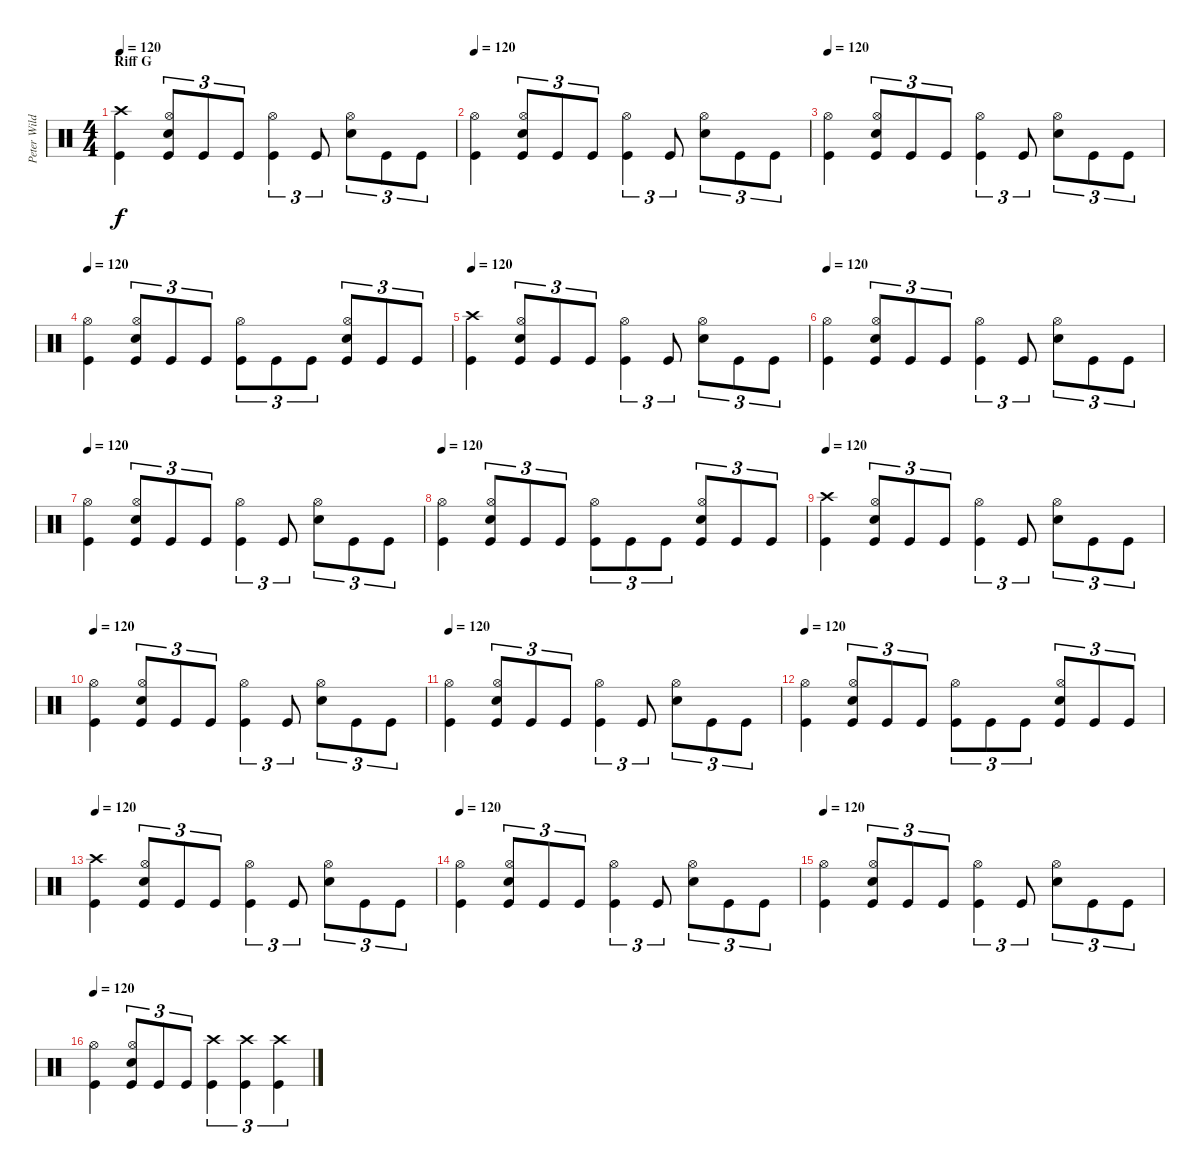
\track ("Peter Wildoer " "Peter Wild") {instrument percussion}
\staff {score}
\articulation defaults
\ts (4 4)
\section ("" "Riff G")
\tempo 120
\clef neutral
\ks c
("Crash high (hit)" "Kick (hit)").4{dy f} ("Hi-Hat (open)" "Electric Snare (hit)" "Kick (hit)").8{tu (3 2)} "Kick (hit)".8{tu (3 2)} "Kick (hit)".8{tu (3 2)} ("Hi-Hat (open)" "Kick (hit)").4{tu (3 2)} "Kick (hit)".8{tu (3 2)} ("Hi-Hat (open)" "Electric Snare (hit)").8{tu (3 2)} "Kick (hit)".8{tu (3 2)} "Kick (hit)".8{tu (3 2)} |
\tempo 120
("Hi-Hat (open)" "Kick (hit)").4 ("Hi-Hat (open)" "Electric Snare (hit)" "Kick (hit)").8{tu (3 2)} "Kick (hit)".8{tu (3 2)} "Kick (hit)".8{tu (3 2)} ("Hi-Hat (open)" "Kick (hit)").4{tu (3 2)} "Kick (hit)".8{tu (3 2)} ("Hi-Hat (open)" "Electric Snare (hit)").8{tu (3 2)} "Kick (hit)".8{tu (3 2)} "Kick (hit)".8{tu (3 2)} |
\tempo 120
("Hi-Hat (open)" "Kick (hit)").4 ("Hi-Hat (open)" "Electric Snare (hit)" "Kick (hit)").8{tu (3 2)} "Kick (hit)".8{tu (3 2)} "Kick (hit)".8{tu (3 2)} ("Hi-Hat (open)" "Kick (hit)").4{tu (3 2)} "Kick (hit)".8{tu (3 2)} ("Hi-Hat (open)" "Electric Snare (hit)").8{tu (3 2)} "Kick (hit)".8{tu (3 2)} "Kick (hit)".8{tu (3 2)} |
\tempo 120
("Hi-Hat (open)" "Kick (hit)").4 ("Hi-Hat (open)" "Electric Snare (hit)" "Kick (hit)").8{tu (3 2)} "Kick (hit)".8{tu (3 2)} "Kick (hit)".8{tu (3 2)} ("Hi-Hat (open)" "Kick (hit)").8{tu (3 2)} "Kick (hit)".8{tu (3 2)} "Kick (hit)".8{tu (3 2)} ("Hi-Hat (open)" "Electric Snare (hit)" "Kick (hit)").8{tu (3 2)} "Kick (hit)".8{tu (3 2)} "Kick (hit)".8{tu (3 2)} |
\tempo 120
("Crash high (hit)" "Kick (hit)").4 ("Hi-Hat (open)" "Electric Snare (hit)" "Kick (hit)").8{tu (3 2)} "Kick (hit)".8{tu (3 2)} "Kick (hit)".8{tu (3 2)} ("Hi-Hat (open)" "Kick (hit)").4{tu (3 2)} "Kick (hit)".8{tu (3 2)} ("Hi-Hat (open)" "Electric Snare (hit)").8{tu (3 2)} "Kick (hit)".8{tu (3 2)} "Kick (hit)".8{tu (3 2)} |
\tempo 120
("Hi-Hat (open)" "Kick (hit)").4 ("Hi-Hat (open)" "Electric Snare (hit)" "Kick (hit)").8{tu (3 2)} "Kick (hit)".8{tu (3 2)} "Kick (hit)".8{tu (3 2)} ("Hi-Hat (open)" "Kick (hit)").4{tu (3 2)} "Kick (hit)".8{tu (3 2)} ("Hi-Hat (open)" "Electric Snare (hit)").8{tu (3 2)} "Kick (hit)".8{tu (3 2)} "Kick (hit)".8{tu (3 2)} |
\tempo 120
("Hi-Hat (open)" "Kick (hit)").4 ("Hi-Hat (open)" "Electric Snare (hit)" "Kick (hit)").8{tu (3 2)} "Kick (hit)".8{tu (3 2)} "Kick (hit)".8{tu (3 2)} ("Hi-Hat (open)" "Kick (hit)").4{tu (3 2)} "Kick (hit)".8{tu (3 2)} ("Hi-Hat (open)" "Electric Snare (hit)").8{tu (3 2)} "Kick (hit)".8{tu (3 2)} "Kick (hit)".8{tu (3 2)} |
\tempo 120
("Hi-Hat (open)" "Kick (hit)").4 ("Hi-Hat (open)" "Electric Snare (hit)" "Kick (hit)").8{tu (3 2)} "Kick (hit)".8{tu (3 2)} "Kick (hit)".8{tu (3 2)} ("Hi-Hat (open)" "Kick (hit)").8{tu (3 2)} "Kick (hit)".8{tu (3 2)} "Kick (hit)".8{tu (3 2)} ("Hi-Hat (open)" "Electric Snare (hit)" "Kick (hit)").8{tu (3 2)} "Kick (hit)".8{tu (3 2)} "Kick (hit)".8{tu (3 2)} |
\tempo 120
("Crash high (hit)" "Kick (hit)").4 ("Hi-Hat (open)" "Electric Snare (hit)" "Kick (hit)").8{tu (3 2)} "Kick (hit)".8{tu (3 2)} "Kick (hit)".8{tu (3 2)} ("Hi-Hat (open)" "Kick (hit)").4{tu (3 2)} "Kick (hit)".8{tu (3 2)} ("Hi-Hat (open)" "Electric Snare (hit)").8{tu (3 2)} "Kick (hit)".8{tu (3 2)} "Kick (hit)".8{tu (3 2)} |
\tempo 120
("Hi-Hat (open)" "Kick (hit)").4 ("Hi-Hat (open)" "Electric Snare (hit)" "Kick (hit)").8{tu (3 2)} "Kick (hit)".8{tu (3 2)} "Kick (hit)".8{tu (3 2)} ("Hi-Hat (open)" "Kick (hit)").4{tu (3 2)} "Kick (hit)".8{tu (3 2)} ("Hi-Hat (open)" "Electric Snare (hit)").8{tu (3 2)} "Kick (hit)".8{tu (3 2)} "Kick (hit)".8{tu (3 2)} |
\tempo 120
("Hi-Hat (open)" "Kick (hit)").4 ("Hi-Hat (open)" "Electric Snare (hit)" "Kick (hit)").8{tu (3 2)} "Kick (hit)".8{tu (3 2)} "Kick (hit)".8{tu (3 2)} ("Hi-Hat (open)" "Kick (hit)").4{tu (3 2)} "Kick (hit)".8{tu (3 2)} ("Hi-Hat (open)" "Electric Snare (hit)").8{tu (3 2)} "Kick (hit)".8{tu (3 2)} "Kick (hit)".8{tu (3 2)} |
\tempo 120
("Hi-Hat (open)" "Kick (hit)").4 ("Hi-Hat (open)" "Electric Snare (hit)" "Kick (hit)").8{tu (3 2)} "Kick (hit)".8{tu (3 2)} "Kick (hit)".8{tu (3 2)} ("Hi-Hat (open)" "Kick (hit)").8{tu (3 2)} "Kick (hit)".8{tu (3 2)} "Kick (hit)".8{tu (3 2)} ("Hi-Hat (open)" "Electric Snare (hit)" "Kick (hit)").8{tu (3 2)} "Kick (hit)".8{tu (3 2)} "Kick (hit)".8{tu (3 2)} |
\tempo 120
("Crash high (hit)" "Kick (hit)").4 ("Hi-Hat (open)" "Electric Snare (hit)" "Kick (hit)").8{tu (3 2)} "Kick (hit)".8{tu (3 2)} "Kick (hit)".8{tu (3 2)} ("Hi-Hat (open)" "Kick (hit)").4{tu (3 2)} "Kick (hit)".8{tu (3 2)} ("Hi-Hat (open)" "Electric Snare (hit)").8{tu (3 2)} "Kick (hit)".8{tu (3 2)} "Kick (hit)".8{tu (3 2)} |
\tempo 120
("Hi-Hat (open)" "Kick (hit)").4 ("Hi-Hat (open)" "Electric Snare (hit)" "Kick (hit)").8{tu (3 2)} "Kick (hit)".8{tu (3 2)} "Kick (hit)".8{tu (3 2)} ("Hi-Hat (open)" "Kick (hit)").4{tu (3 2)} "Kick (hit)".8{tu (3 2)} ("Hi-Hat (open)" "Electric Snare (hit)").8{tu (3 2)} "Kick (hit)".8{tu (3 2)} "Kick (hit)".8{tu (3 2)} |
\tempo 120
("Hi-Hat (open)" "Kick (hit)").4 ("Hi-Hat (open)" "Electric Snare (hit)" "Kick (hit)").8{tu (3 2)} "Kick (hit)".8{tu (3 2)} "Kick (hit)".8{tu (3 2)} ("Hi-Hat (open)" "Kick (hit)").4{tu (3 2)} "Kick (hit)".8{tu (3 2)} ("Hi-Hat (open)" "Electric Snare (hit)").8{tu (3 2)} "Kick (hit)".8{tu (3 2)} "Kick (hit)".8{tu (3 2)} |
\tempo 120
("Hi-Hat (open)" "Kick (hit)").4 ("Hi-Hat (open)" "Electric Snare (hit)" "Kick (hit)").8{tu (3 2)} "Kick (hit)".8{tu (3 2)} "Kick (hit)".8{tu (3 2)} ("Crash high (hit)" "Kick (hit)").4{tu (3 2)} ("Crash high (hit)" "Kick (hit)").4{tu (3 2)} ("Crash high (hit)" "Kick (hit)").4{tu (3 2)}
